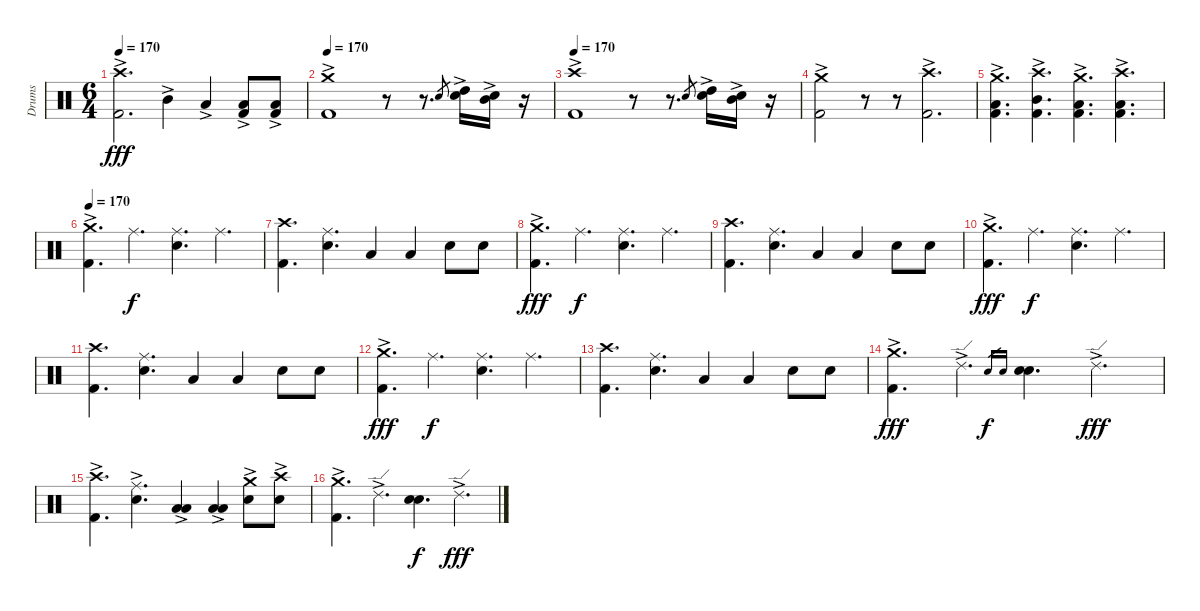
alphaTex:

\track ("Drums" "Drums") {instrument percussion}
\staff {score}
\articulation defaults
\ts (6 4)
\tempo 170
\clef neutral
\ks c
("Crash high (hit)"{ac} "Kick (hit) 2"{ac}).2{d dy fff} "Mid Tom (hit)"{ac}.4 "Low Tom (hit)"{ac}.4 ("Low Floor Tom (hit)"{ac} "Kick (hit) 2"{ac}).8 ("Low Floor Tom (hit)" "Kick (hit) 2"{ac}).8 |
\tempo 170
("Crash medium (hit)"{ac} "Kick (hit) 2"{ac}).1 r.8 r.8{d} "Snare (hit) 2".8{gr} ("High Tom (hit)"{ac} "Snare (hit) 2"{ac}).16 ("Mid Tom (hit)"{ac} "Snare (hit) 2"{ac}).16 r.16 |
\tempo 170
("Crash high (hit)"{ac} "Kick (hit) 2"{ac}).1 r.8 r.8{d} "Snare (hit) 2".8{gr} ("High Tom (hit)"{ac} "Snare (hit) 2"{ac}).16 ("Mid Tom (hit)"{ac} "Snare (hit) 2"{ac}).16 r.16 |
("Crash medium (hit)"{ac} "Kick (hit) 2").2 r.8 r.8 ("Crash high (hit)"{ac} "Kick (hit) 2").2{d} |
("Crash medium (hit)"{ac} "Low Tom (hit)" "Kick (hit) 2").4{d} ("Crash high (hit)"{ac} "Mid Tom (hit)" "Kick (hit) 2").4{d} ("Crash medium (hit)"{ac} "Low Tom (hit)" "Kick (hit) 2").4{d} ("Crash high (hit)"{ac} "Low Floor Tom (hit)" "Kick (hit) 2").4{d} |
\tempo 170
("Crash medium (hit)"{ac} "Kick (hit) 2").4{d} "Ride (middle)".4{d dy f} ("Ride (middle)" "Snare (hit) 2").4{d} "Ride (middle)".4{d} |
("Crash high (hit)" "Kick (hit) 2").4{d} ("Ride (middle)" "Snare (hit) 2").4{d} "Low Tom (hit)".4 "Low Floor Tom (hit)".4 "Snare (hit) 2".8 "Snare (hit) 2".8 |
("Crash medium (hit)"{ac} "Kick (hit) 2").4{d dy fff} "Ride (middle)".4{d dy f} ("Ride (middle)" "Snare (hit) 2").4{d} "Ride (middle)".4{d} |
("Crash high (hit)" "Kick (hit) 2").4{d} ("Ride (middle)" "Snare (hit) 2").4{d} "Low Tom (hit)".4 "Low Floor Tom (hit)".4 "Snare (hit) 2".8 "Snare (hit) 2".8 |
("Crash medium (hit)"{ac} "Kick (hit) 2").4{d dy fff} "Ride (middle)".4{d dy f} ("Ride (middle)" "Snare (hit) 2").4{d} "Ride (middle)".4{d} |
("Crash high (hit)" "Kick (hit) 2").4{d} ("Ride (middle)" "Snare (hit) 2").4{d} "Low Tom (hit)".4 "Low Floor Tom (hit)".4 "Snare (hit) 2".8 "Snare (hit) 2".8 |
("Crash medium (hit)"{ac} "Kick (hit) 2").4{d dy fff} "Ride (middle)".4{d dy f} ("Ride (middle)" "Snare (hit) 2").4{d} "Ride (middle)".4{d} |
("Crash high (hit)" "Kick (hit) 2").4{d} ("Ride (middle)" "Snare (hit) 2").4{d} "Low Tom (hit)".4 "Low Floor Tom (hit)".4 "Snare (hit) 2".8 "Snare (hit) 2".8 |
("Crash medium (hit)"{ac} "Kick (hit) 2").4{d dy fff} "Ride (edge) 2"{ac}.4{d} "Snare (hit) 2".16{gr dy f} "Snare (hit) 2".16{gr} ("Snare (hit) 2" "Snare (hit) 2").4{d} "Ride (edge) 2"{ac}.4{d dy fff} |
("Crash high (hit)"{ac} "Kick (hit) 2"{ac}).4{d} ("Ride (middle)"{ac} "Snare (hit) 2"{ac}).4{d} ("Low Tom (hit)"{ac} "Low Tom (hit)"{ac}).4 ("Low Floor Tom (hit)"{ac} "Low Floor Tom (hit)"{ac}).4 ("Crash medium (hit)"{ac} "Snare (hit) 2"{ac}).8 ("Crash high (hit)"{ac} "Snare (hit) 2"{ac}).8 |
("Crash medium (hit)"{ac} "Kick (hit) 2").4{d} "Ride (edge) 2"{ac}.4{d} ("Snare (hit) 2" "Snare (hit) 2").4{d dy f} "Ride (edge) 2"{ac}.4{d dy fff}
